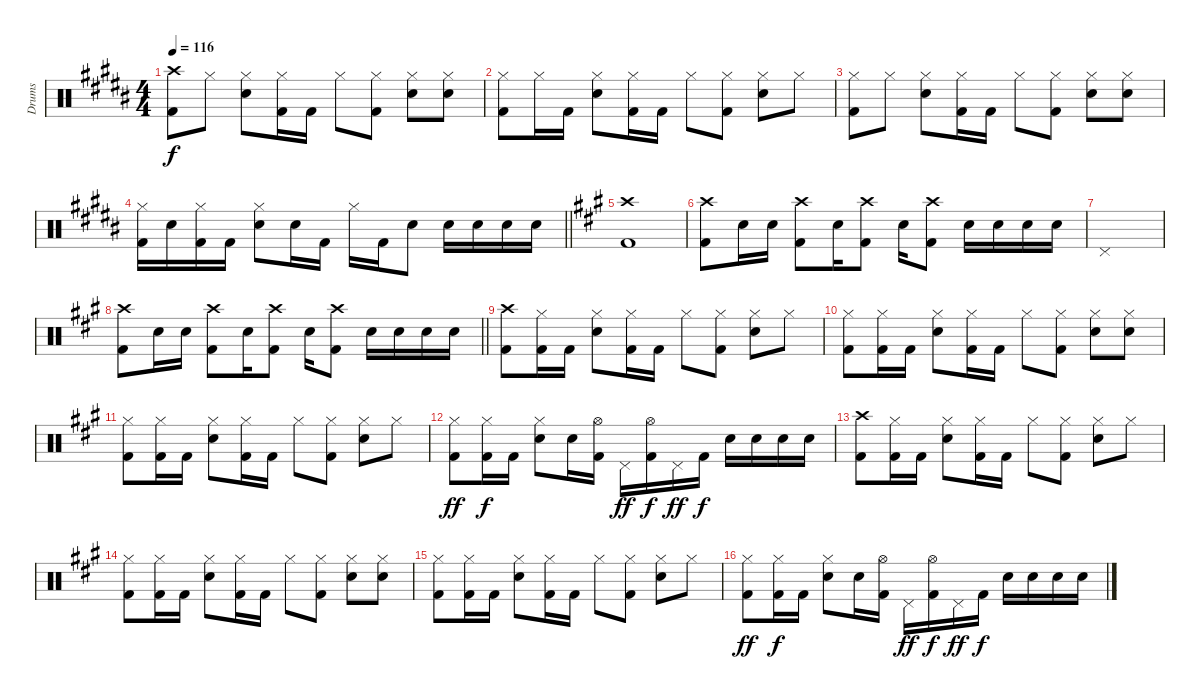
\track ("Drums" "Drums") {instrument percussion}
\staff {score}
\articulation defaults
\ts (4 4)
\tempo 116
\clef neutral
\ks b
("Crash high (hit)" "Kick (hit) 2").8{dy f} "Hi-Hat (closed)".8 ("Snare (hit) 2" "Hi-Hat (closed)").8 ("Hi-Hat (closed)" "Kick (hit) 2").16 "Kick (hit) 2".16 "Hi-Hat (closed)".8 ("Kick (hit) 2" "Hi-Hat (closed)").8 ("Hi-Hat (closed)" "Snare (hit) 2").8 ("Snare (hit) 2" "Hi-Hat (closed)").8 |
\ks g#minor
("Hi-Hat (closed)" "Kick (hit) 2").8 "Hi-Hat (closed)".16 "Kick (hit) 2".16 ("Hi-Hat (closed)" "Snare (hit) 2").8 ("Hi-Hat (closed)" "Kick (hit) 2").16 "Kick (hit) 2".16 "Hi-Hat (closed)".8 ("Hi-Hat (closed)" "Kick (hit) 2").8 ("Hi-Hat (closed)" "Snare (hit) 2").8 "Hi-Hat (closed)".8 |
\ks b
("Hi-Hat (closed)" "Kick (hit) 2").8 "Hi-Hat (closed)".8 ("Snare (hit) 2" "Hi-Hat (closed)").8 ("Hi-Hat (closed)" "Kick (hit) 2").16 "Kick (hit) 2".16 "Hi-Hat (closed)".8 ("Kick (hit) 2" "Hi-Hat (closed)").8 ("Hi-Hat (closed)" "Snare (hit) 2").8 ("Snare (hit) 2" "Hi-Hat (closed)").8 |
\barLineRight lightlight
\ks g#minor
("Hi-Hat (closed)" "Kick (hit) 2").16 "Snare (hit) 2".16 ("Hi-Hat (closed)" "Kick (hit) 2").16 "Kick (hit) 2".16 ("Hi-Hat (closed)" "Snare (hit) 2").8 "Snare (hit) 2".16 "Kick (hit) 2".16 "Hi-Hat (closed)".16 "Kick (hit) 2".16 "Snare (hit) 2".8 "Snare (hit) 2".16 "Snare (hit) 2".16 "Snare (hit) 2".16 "Snare (hit) 2".16 |
\ks a
("Crash high (hit)" "Kick (hit) 2").1 |
("Crash high (hit)" "Kick (hit) 2").8 "Snare (hit) 2".16 "Snare (hit) 2".16 ("Crash high (hit)" "Kick (hit) 2").8 "Snare (hit) 2".16 ("Crash high (hit)" "Kick (hit) 2").8 "Snare (hit) 2".16 ("Crash high (hit)" "Kick (hit) 2").8 "Snare (hit) 2".16 "Snare (hit) 2".16 "Snare (hit) 2".16 "Snare (hit) 2".16 |
"Pedal Hi-Hat (hit)".1 |
\barLineRight lightlight
("Crash high (hit)" "Kick (hit) 2").8 "Snare (hit) 2".16 "Snare (hit) 2".16 ("Crash high (hit)" "Kick (hit) 2").8 "Snare (hit) 2".16 ("Crash high (hit)" "Kick (hit) 2").8 "Snare (hit) 2".16 ("Crash high (hit)" "Kick (hit) 2").8 "Snare (hit) 2".16 "Snare (hit) 2".16 "Snare (hit) 2".16 "Snare (hit) 2".16 |
("Crash high (hit)" "Kick (hit) 2").8 ("Hi-Hat (closed)" "Kick (hit) 2").16 "Kick (hit) 2".16 ("Hi-Hat (closed)" "Snare (hit) 2").8 ("Hi-Hat (closed)" "Kick (hit) 2").16 "Kick (hit) 2".16 "Hi-Hat (closed)".8 ("Hi-Hat (closed)" "Kick (hit) 2").8 ("Hi-Hat (closed)" "Snare (hit) 2").8 "Hi-Hat (closed)".8 |
("Hi-Hat (closed)" "Kick (hit) 2").8 ("Hi-Hat (closed)" "Kick (hit) 2").16 "Kick (hit) 2".16 ("Hi-Hat (closed)" "Snare (hit) 2").8 ("Hi-Hat (closed)" "Kick (hit) 2").16 "Kick (hit) 2".16 "Hi-Hat (closed)".8 ("Hi-Hat (closed)" "Kick (hit) 2").8 ("Hi-Hat (closed)" "Snare (hit) 2").8 ("Hi-Hat (closed)" "Snare (hit) 2").8 |
("Hi-Hat (closed)" "Kick (hit) 2").8 ("Hi-Hat (closed)" "Kick (hit) 2").16 "Kick (hit) 2".16 ("Hi-Hat (closed)" "Snare (hit) 2").8 ("Hi-Hat (closed)" "Kick (hit) 2").16 "Kick (hit) 2".16 "Hi-Hat (closed)".8 ("Hi-Hat (closed)" "Kick (hit) 2").8 ("Hi-Hat (closed)" "Snare (hit) 2").8 "Hi-Hat (closed)".8 |
("Hi-Hat (closed)" "Kick (hit) 2").8{dy ff} ("Hi-Hat (closed)" "Kick (hit) 2").16{dy f} "Kick (hit) 2".16 ("Hi-Hat (closed)" "Snare (hit) 2").8 "Snare (hit) 2".16 ("Hi-Hat (open)" "Kick (hit) 2").16 "Pedal Hi-Hat (hit)".16{dy ff} ("Hi-Hat (open)" "Kick (hit) 2").16{dy f} "Pedal Hi-Hat (hit)".16{dy ff} "Kick (hit) 2".16{dy f} "Snare (hit) 2".16 "Snare (hit) 2".16 "Snare (hit) 2".16 "Snare (hit) 2".16 |
("Crash high (hit)" "Kick (hit) 2").8 ("Hi-Hat (closed)" "Kick (hit) 2").16 "Kick (hit) 2".16 ("Hi-Hat (closed)" "Snare (hit) 2").8 ("Hi-Hat (closed)" "Kick (hit) 2").16 "Kick (hit) 2".16 "Hi-Hat (closed)".8 ("Hi-Hat (closed)" "Kick (hit) 2").8 ("Hi-Hat (closed)" "Snare (hit) 2").8 "Hi-Hat (closed)".8 |
("Hi-Hat (closed)" "Kick (hit) 2").8 ("Hi-Hat (closed)" "Kick (hit) 2").16 "Kick (hit) 2".16 ("Hi-Hat (closed)" "Snare (hit) 2").8 ("Hi-Hat (closed)" "Kick (hit) 2").16 "Kick (hit) 2".16 "Hi-Hat (closed)".8 ("Hi-Hat (closed)" "Kick (hit) 2").8 ("Hi-Hat (closed)" "Snare (hit) 2").8 ("Hi-Hat (closed)" "Snare (hit) 2").8 |
("Hi-Hat (closed)" "Kick (hit) 2").8 ("Hi-Hat (closed)" "Kick (hit) 2").16 "Kick (hit) 2".16 ("Hi-Hat (closed)" "Snare (hit) 2").8 ("Hi-Hat (closed)" "Kick (hit) 2").16 "Kick (hit) 2".16 "Hi-Hat (closed)".8 ("Hi-Hat (closed)" "Kick (hit) 2").8 ("Hi-Hat (closed)" "Snare (hit) 2").8 "Hi-Hat (closed)".8 |
("Hi-Hat (closed)" "Kick (hit) 2").8{dy ff} ("Hi-Hat (closed)" "Kick (hit) 2").16{dy f} "Kick (hit) 2".16 ("Hi-Hat (closed)" "Snare (hit) 2").8 "Snare (hit) 2".16 ("Hi-Hat (open)" "Kick (hit) 2").16 "Pedal Hi-Hat (hit)".16{dy ff} ("Hi-Hat (open)" "Kick (hit) 2").16{dy f} "Pedal Hi-Hat (hit)".16{dy ff} "Kick (hit) 2".16{dy f} "Snare (hit) 2".16 "Snare (hit) 2".16 "Snare (hit) 2".16 "Snare (hit) 2".16
